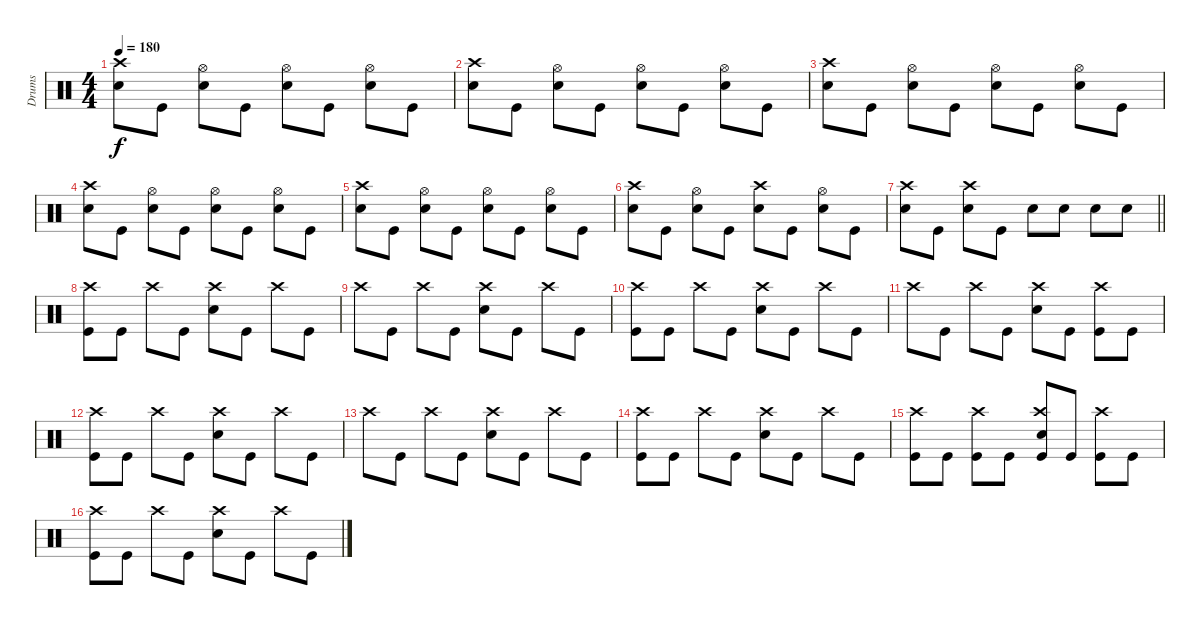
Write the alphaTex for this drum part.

\track ("Drums" "Drums") {instrument percussion}
\staff {score}
\articulation defaults
\ts (4 4)
\tempo 180
\clef neutral
\ks c
("Snare (hit) 2" "Crash high (hit)").8{dy f} "Kick (hit)".8 ("Hi-Hat (open)" "Snare (hit) 2").8 "Kick (hit)".8 ("Hi-Hat (open)" "Snare (hit) 2").8 "Kick (hit)".8 ("Hi-Hat (open)" "Snare (hit) 2").8 "Kick (hit)".8 |
("Snare (hit) 2" "Crash high (hit)").8 "Kick (hit)".8 ("Hi-Hat (open)" "Snare (hit) 2").8 "Kick (hit)".8 ("Hi-Hat (open)" "Snare (hit) 2").8 "Kick (hit)".8 ("Hi-Hat (open)" "Snare (hit) 2").8 "Kick (hit)".8 |
("Snare (hit) 2" "Crash high (hit)").8 "Kick (hit)".8 ("Hi-Hat (open)" "Snare (hit) 2").8 "Kick (hit)".8 ("Hi-Hat (open)" "Snare (hit) 2").8 "Kick (hit)".8 ("Hi-Hat (open)" "Snare (hit) 2").8 "Kick (hit)".8 |
("Snare (hit) 2" "Crash high (hit)").8 "Kick (hit)".8 ("Hi-Hat (open)" "Snare (hit) 2").8 "Kick (hit)".8 ("Hi-Hat (open)" "Snare (hit) 2").8 "Kick (hit)".8 ("Hi-Hat (open)" "Snare (hit) 2").8 "Kick (hit)".8 |
("Snare (hit) 2" "Crash high (hit)").8 "Kick (hit)".8 ("Hi-Hat (open)" "Snare (hit) 2").8 "Kick (hit)".8 ("Hi-Hat (open)" "Snare (hit) 2").8 "Kick (hit)".8 ("Hi-Hat (open)" "Snare (hit) 2").8 "Kick (hit)".8 |
("Snare (hit) 2" "Crash high (hit)").8 "Kick (hit)".8 ("Hi-Hat (open)" "Snare (hit) 2").8 "Kick (hit)".8 ("Snare (hit) 2" "Crash high (hit)").8 "Kick (hit)".8 ("Hi-Hat (open)" "Snare (hit) 2").8 "Kick (hit)".8 |
\barLineRight lightlight
("Snare (hit) 2" "Crash high (hit)").8 "Kick (hit)".8 ("Snare (hit) 2" "Crash high (hit)").8 "Kick (hit)".8 "Snare (hit) 2".8 "Snare (hit) 2".8 "Snare (hit) 2".8 "Snare (hit) 2".8 |
\section ("" "")
("Crash high (hit)" "Kick (hit)").8 "Kick (hit)".8 "Crash high (hit)".8 "Kick (hit)".8 ("Crash high (hit)" "Snare (hit) 2").8 "Kick (hit)".8 "Crash high (hit)".8 "Kick (hit)".8 |
"Crash high (hit)".8 "Kick (hit)".8 "Crash high (hit)".8 "Kick (hit)".8 ("Crash high (hit)" "Snare (hit) 2").8 "Kick (hit)".8 "Crash high (hit)".8 "Kick (hit)".8 |
("Crash high (hit)" "Kick (hit)").8 "Kick (hit)".8 "Crash high (hit)".8 "Kick (hit)".8 ("Crash high (hit)" "Snare (hit) 2").8 "Kick (hit)".8 "Crash high (hit)".8 "Kick (hit)".8 |
"Crash high (hit)".8 "Kick (hit)".8 "Crash high (hit)".8 "Kick (hit)".8 ("Crash high (hit)" "Snare (hit) 2").8 "Kick (hit)".8 ("Crash high (hit)" "Kick (hit)").8 "Kick (hit)".8 |
("Crash high (hit)" "Kick (hit)").8 "Kick (hit)".8 "Crash high (hit)".8 "Kick (hit)".8 ("Crash high (hit)" "Snare (hit) 2").8 "Kick (hit)".8 "Crash high (hit)".8 "Kick (hit)".8 |
"Crash high (hit)".8 "Kick (hit)".8 "Crash high (hit)".8 "Kick (hit)".8 ("Crash high (hit)" "Snare (hit) 2").8 "Kick (hit)".8 "Crash high (hit)".8 "Kick (hit)".8 |
("Crash high (hit)" "Kick (hit)").8 "Kick (hit)".8 "Crash high (hit)".8 "Kick (hit)".8 ("Crash high (hit)" "Snare (hit) 2").8 "Kick (hit)".8 "Crash high (hit)".8 "Kick (hit)".8 |
("Crash high (hit)" "Kick (hit)").8 "Kick (hit)".8 ("Crash high (hit)" "Kick (hit)").8 "Kick (hit)".8 ("Crash high (hit)" "Snare (hit) 2" "Kick (hit)").8 "Kick (hit)".8 ("Crash high (hit)" "Kick (hit)").8 "Kick (hit)".8 |
("Crash high (hit)" "Kick (hit)").8 "Kick (hit)".8 "Crash high (hit)".8 "Kick (hit)".8 ("Crash high (hit)" "Snare (hit) 2").8 "Kick (hit)".8 "Crash high (hit)".8 "Kick (hit)".8
